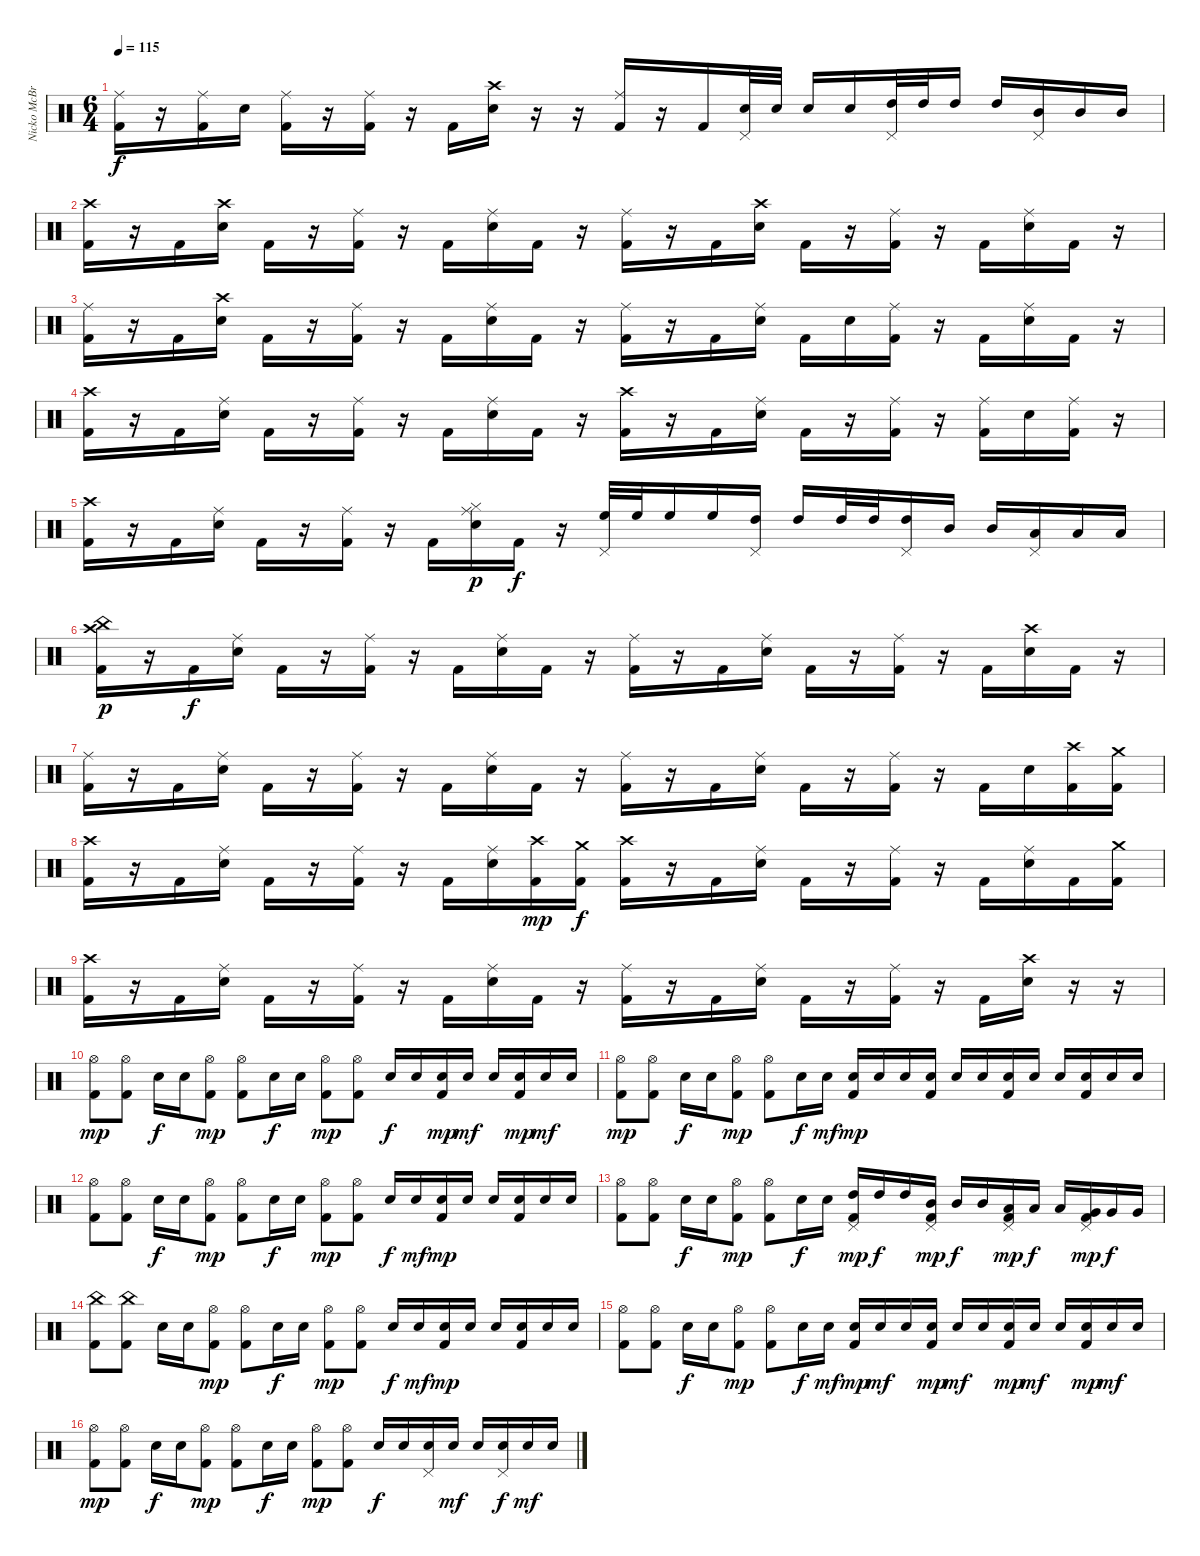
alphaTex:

\track ("Nicko McBrain" "Nicko McBr") {instrument percussion}
\staff {score}
\articulation defaults
\ts (6 4)
\tempo 115
\clef neutral
\ks c
("Kick (hit) 2" "Ride (middle)").16{dy f} r.16 ("Ride (middle)" "Kick (hit) 2").16 "Electric Snare (hit)".16 ("Ride (middle)" "Kick (hit) 2").16 r.16 ("Ride (middle)" "Kick (hit) 2").16 r.16 "Kick (hit) 2".16 ("Crash high (hit)" "Electric Snare (hit)").16 r.16 r.16 ("Ride (middle)" "Kick (hit) 2").16 r.16 "Kick (hit) 2".16 ("Electric Snare (hit)" "Pedal Hi-Hat (hit)").32 "Electric Snare (hit)".32 "Electric Snare (hit)".16 "Electric Snare (hit)".16 ("High Tom (hit)" "Pedal Hi-Hat (hit)").32 "High Tom (hit)".32 "High Tom (hit)".16 "High Tom (hit)".16 ("Mid Tom (hit)" "Pedal Hi-Hat (hit)").16 "Mid Tom (hit)".16 "Mid Tom (hit)".16 |
("Crash high (hit)" "Kick (hit) 2").16 r.16 "Kick (hit) 2".16 ("Crash high (hit)" "Electric Snare (hit)").16 "Kick (hit) 2".16 r.16 ("Ride (middle)" "Kick (hit) 2").16 r.16 "Kick (hit) 2".16 ("Ride (middle)" "Electric Snare (hit)").16 "Kick (hit) 2".16 r.16 ("Ride (middle)" "Kick (hit) 2").16 r.16 "Kick (hit) 2".16 ("Crash high (hit)" "Electric Snare (hit)").16 "Kick (hit) 2".16 r.16 ("Ride (middle)" "Kick (hit) 2").16 r.16 "Kick (hit) 2".16 ("Ride (middle)" "Electric Snare (hit)").16 "Kick (hit) 2".16 r.16 |
("Ride (middle)" "Kick (hit) 2").16 r.16 "Kick (hit) 2".16 ("Crash high (hit)" "Electric Snare (hit)").16 "Kick (hit) 2".16 r.16 ("Ride (middle)" "Kick (hit) 2").16 r.16 "Kick (hit) 2".16 ("Ride (middle)" "Electric Snare (hit)").16 "Kick (hit) 2".16 r.16 ("Ride (middle)" "Kick (hit) 2").16 r.16 "Kick (hit) 2".16 ("Ride (middle)" "Electric Snare (hit)").16 "Kick (hit) 2".16 "Electric Snare (hit)".16 ("Ride (middle)" "Kick (hit) 2").16 r.16 "Kick (hit) 2".16 ("Ride (middle)" "Electric Snare (hit)").16 "Kick (hit) 2".16 r.16 |
("Crash high (hit)" "Kick (hit) 2").16 r.16 "Kick (hit) 2".16 ("Ride (middle)" "Electric Snare (hit)").16 "Kick (hit) 2".16 r.16 ("Ride (middle)" "Kick (hit) 2").16 r.16 "Kick (hit) 2".16 ("Ride (middle)" "Electric Snare (hit)").16 "Kick (hit) 2".16 r.16 ("Crash high (hit)" "Kick (hit) 2").16 r.16 "Kick (hit) 2".16 ("Ride (middle)" "Electric Snare (hit)").16 "Kick (hit) 2".16 r.16 ("Ride (middle)" "Kick (hit) 2").16 r.16 ("Ride (middle)" "Kick (hit) 2").16 "Electric Snare (hit)".16 ("Ride (middle)" "Kick (hit) 2").16 r.16 |
("Crash high (hit)" "Kick (hit) 2").16 r.16 "Kick (hit) 2".16 ("Ride (middle)" "Electric Snare (hit)").16 "Kick (hit) 2".16 r.16 ("Ride (middle)" "Kick (hit) 2").16 r.16 "Kick (hit) 2".16 ("Ride (middle)" "Electric Snare (hit)" "Hi-Hat (closed)").16{dy p} "Kick (hit) 2".16{dy f} r.16 ("High Floor Tom (hit)" "Pedal Hi-Hat (hit)").32 "High Floor Tom (hit)".32 "High Floor Tom (hit)".16 "High Floor Tom (hit)".16 ("High Tom (hit)" "Pedal Hi-Hat (hit)").16 "High Tom (hit)".16 "High Tom (hit)".32 "High Tom (hit)".32 ("High Tom (hit)" "Pedal Hi-Hat (hit)").16 "Mid Tom (hit)".16 "Mid Tom (hit)".16 ("Low Tom (hit)" "Pedal Hi-Hat (hit)").16 "Low Tom (hit)".16 "Low Tom (hit)".16 |
("Crash high (hit)" "Kick (hit) 2" "China (hit)").16{dy p} r.16 "Kick (hit) 2".16{dy f} ("Ride (middle)" "Electric Snare (hit)").16 "Kick (hit) 2".16 r.16 ("Ride (middle)" "Kick (hit) 2").16 r.16 "Kick (hit) 2".16 ("Ride (middle)" "Electric Snare (hit)").16 "Kick (hit) 2".16 r.16 ("Ride (middle)" "Kick (hit) 2").16 r.16 "Kick (hit) 2".16 ("Ride (middle)" "Electric Snare (hit)").16 "Kick (hit) 2".16 r.16 ("Ride (middle)" "Kick (hit) 2").16 r.16 "Kick (hit) 2".16 ("Crash high (hit)" "Electric Snare (hit)").16 "Kick (hit) 2".16 r.16 |
("Ride (middle)" "Kick (hit) 2").16 r.16 "Kick (hit) 2".16 ("Ride (middle)" "Electric Snare (hit)").16 "Kick (hit) 2".16 r.16 ("Ride (middle)" "Kick (hit) 2").16 r.16 "Kick (hit) 2".16 ("Ride (middle)" "Electric Snare (hit)").16 "Kick (hit) 2".16 r.16 ("Ride (middle)" "Kick (hit) 2").16 r.16 "Kick (hit) 2".16 ("Ride (middle)" "Electric Snare (hit)").16 "Kick (hit) 2".16 r.16 ("Ride (middle)" "Kick (hit) 2").16 r.16 "Kick (hit) 2".16 "Electric Snare (hit)".16 ("Crash high (hit)" "Kick (hit) 2").16 ("Crash medium (hit)" "Kick (hit) 2").16 |
("Crash high (hit)" "Kick (hit) 2").16 r.16 "Kick (hit) 2".16 ("Ride (middle)" "Electric Snare (hit)").16 "Kick (hit) 2".16 r.16 ("Ride (middle)" "Kick (hit) 2").16 r.16 "Kick (hit) 2".16 ("Ride (middle)" "Electric Snare (hit)").16 ("Crash high (hit)" "Kick (hit) 2").16{dy mp} ("Crash medium (hit)" "Kick (hit) 2").16{dy f} ("Crash high (hit)" "Kick (hit) 2").16 r.16 "Kick (hit) 2".16 ("Ride (middle)" "Electric Snare (hit)").16 "Kick (hit) 2".16 r.16 ("Ride (middle)" "Kick (hit) 2").16 r.16 "Kick (hit) 2".16 ("Ride (middle)" "Electric Snare (hit)").16 "Kick (hit) 2".16 ("Crash medium (hit)" "Kick (hit) 2").16 |
("Crash high (hit)" "Kick (hit) 2").16 r.16 "Kick (hit) 2".16 ("Ride (middle)" "Electric Snare (hit)").16 "Kick (hit) 2".16 r.16 ("Ride (middle)" "Kick (hit) 2").16 r.16 "Kick (hit) 2".16 ("Ride (middle)" "Electric Snare (hit)").16 "Kick (hit) 2".16 r.16 ("Ride (middle)" "Kick (hit) 2").16 r.16 "Kick (hit) 2".16 ("Ride (middle)" "Electric Snare (hit)").16 "Kick (hit) 2".16 r.16 ("Ride (middle)" "Kick (hit) 2").16 r.16 "Kick (hit) 2".16 ("Crash high (hit)" "Electric Snare (hit)").16 r.16 r.16 |
("Kick (hit) 2" "Hi-Hat (open)").8{dy mp} ("Kick (hit) 2" "Hi-Hat (open)").8 "Electric Snare (hit)".16{dy f} "Electric Snare (hit)".16 ("Kick (hit) 2" "Hi-Hat (open)").8{dy mp} ("Kick (hit) 2" "Hi-Hat (open)").8 "Electric Snare (hit)".16{dy f} "Electric Snare (hit)".16 ("Kick (hit) 2" "Hi-Hat (open)").8{dy mp} ("Kick (hit) 2" "Hi-Hat (open)").8 "Electric Snare (hit)".16{dy f} "Electric Snare (hit)".16 ("Electric Snare (hit)" "Kick (hit) 2").16{dy mp} "Electric Snare (hit)".16{dy mf} "Electric Snare (hit)".16 ("Electric Snare (hit)" "Kick (hit) 2").16{dy mp} "Electric Snare (hit)".16{dy mf} "Electric Snare (hit)".16 |
("Kick (hit) 2" "Hi-Hat (open)").8{dy mp} ("Kick (hit) 2" "Hi-Hat (open)").8 "Electric Snare (hit)".16{dy f} "Electric Snare (hit)".16 ("Kick (hit) 2" "Hi-Hat (open)").8{dy mp} ("Kick (hit) 2" "Hi-Hat (open)").8 "Electric Snare (hit)".16{dy f} "Electric Snare (hit)".16{dy mf} ("Electric Snare (hit)" "Kick (hit) 2").16{dy mp} "Electric Snare (hit)".16 "Electric Snare (hit)".16 ("Electric Snare (hit)" "Kick (hit) 2").16 "Electric Snare (hit)".16 "Electric Snare (hit)".16 ("Electric Snare (hit)" "Kick (hit) 2").16 "Electric Snare (hit)".16 "Electric Snare (hit)".16 ("Electric Snare (hit)" "Kick (hit) 2").16 "Electric Snare (hit)".16 "Electric Snare (hit)".16 |
("Kick (hit) 2" "Hi-Hat (open)").8 ("Kick (hit) 2" "Hi-Hat (open)").8 "Electric Snare (hit)".16{dy f} "Electric Snare (hit)".16 ("Kick (hit) 2" "Hi-Hat (open)").8{dy mp} ("Kick (hit) 2" "Hi-Hat (open)").8 "Electric Snare (hit)".16{dy f} "Electric Snare (hit)".16 ("Kick (hit) 2" "Hi-Hat (open)").8{dy mp} ("Kick (hit) 2" "Hi-Hat (open)").8 "Electric Snare (hit)".16{dy f} "Electric Snare (hit)".16{dy mf} ("Electric Snare (hit)" "Kick (hit) 2").16{dy mp} "Electric Snare (hit)".16 "Electric Snare (hit)".16 ("Electric Snare (hit)" "Kick (hit) 2").16 "Electric Snare (hit)".16 "Electric Snare (hit)".16 |
("Kick (hit) 2" "Hi-Hat (open)").8 ("Kick (hit) 2" "Hi-Hat (open)").8 "Electric Snare (hit)".16{dy f} "Electric Snare (hit)".16 ("Kick (hit) 2" "Hi-Hat (open)").8{dy mp} ("Kick (hit) 2" "Hi-Hat (open)").8 "Electric Snare (hit)".16{dy f} "Electric Snare (hit)".16 ("High Tom (hit)" "Pedal Hi-Hat (hit)" "Kick (hit) 2").16{dy mp} "High Tom (hit)".16{dy f} "High Tom (hit)".16 ("Mid Tom (hit)" "Pedal Hi-Hat (hit)" "Kick (hit) 2").16{dy mp} "Mid Tom (hit)".16{dy f} "Mid Tom (hit)".16 ("Low Tom (hit)" "Pedal Hi-Hat (hit)" "Kick (hit) 2").16{dy mp} "Low Tom (hit)".16{dy f} "Low Tom (hit)".16 ("Very Low Tom (hit)" "Pedal Hi-Hat (hit)" "Kick (hit) 2").16{dy mp} "Very Low Tom (hit)".16{dy f} "Very Low Tom (hit)".16 |
("China (hit)" "Kick (hit) 2").8 ("China (hit)" "Kick (hit) 2").8 "Electric Snare (hit)".16 "Electric Snare (hit)".16 ("Kick (hit) 2" "Hi-Hat (open)").8{dy mp} ("Kick (hit) 2" "Hi-Hat (open)").8 "Electric Snare (hit)".16{dy f} "Electric Snare (hit)".16 ("Kick (hit) 2" "Hi-Hat (open)").8{dy mp} ("Kick (hit) 2" "Hi-Hat (open)").8 "Electric Snare (hit)".16{dy f} "Electric Snare (hit)".16{dy mf} ("Electric Snare (hit)" "Kick (hit) 2").16{dy mp} "Electric Snare (hit)".16 "Electric Snare (hit)".16 ("Electric Snare (hit)" "Kick (hit) 2").16 "Electric Snare (hit)".16 "Electric Snare (hit)".16 |
("Kick (hit) 2" "Hi-Hat (open)").8 ("Kick (hit) 2" "Hi-Hat (open)").8 "Electric Snare (hit)".16{dy f} "Electric Snare (hit)".16 ("Kick (hit) 2" "Hi-Hat (open)").8{dy mp} ("Kick (hit) 2" "Hi-Hat (open)").8 "Electric Snare (hit)".16{dy f} "Electric Snare (hit)".16{dy mf} ("Electric Snare (hit)" "Kick (hit) 2").16{dy mp} "Electric Snare (hit)".16{dy mf} "Electric Snare (hit)".16 ("Electric Snare (hit)" "Kick (hit) 2").16{dy mp} "Electric Snare (hit)".16{dy mf} "Electric Snare (hit)".16 ("Electric Snare (hit)" "Kick (hit) 2").16{dy mp} "Electric Snare (hit)".16{dy mf} "Electric Snare (hit)".16 ("Electric Snare (hit)" "Kick (hit) 2").16{dy mp} "Electric Snare (hit)".16{dy mf} "Electric Snare (hit)".16 |
("Kick (hit) 2" "Hi-Hat (open)").8{dy mp} ("Kick (hit) 2" "Hi-Hat (open)").8 "Electric Snare (hit)".16{dy f} "Electric Snare (hit)".16 ("Kick (hit) 2" "Hi-Hat (open)").8{dy mp} ("Kick (hit) 2" "Hi-Hat (open)").8 "Electric Snare (hit)".16{dy f} "Electric Snare (hit)".16 ("Kick (hit) 2" "Hi-Hat (open)").8{dy mp} ("Kick (hit) 2" "Hi-Hat (open)").8 "Electric Snare (hit)".16{dy f} "Electric Snare (hit)".16 ("Electric Snare (hit)" "Pedal Hi-Hat (hit)").16 "Electric Snare (hit)".16{dy mf} "Electric Snare (hit)".16 ("Electric Snare (hit)" "Pedal Hi-Hat (hit)").16{dy f} "Electric Snare (hit)".16{dy mf} "Electric Snare (hit)".16
